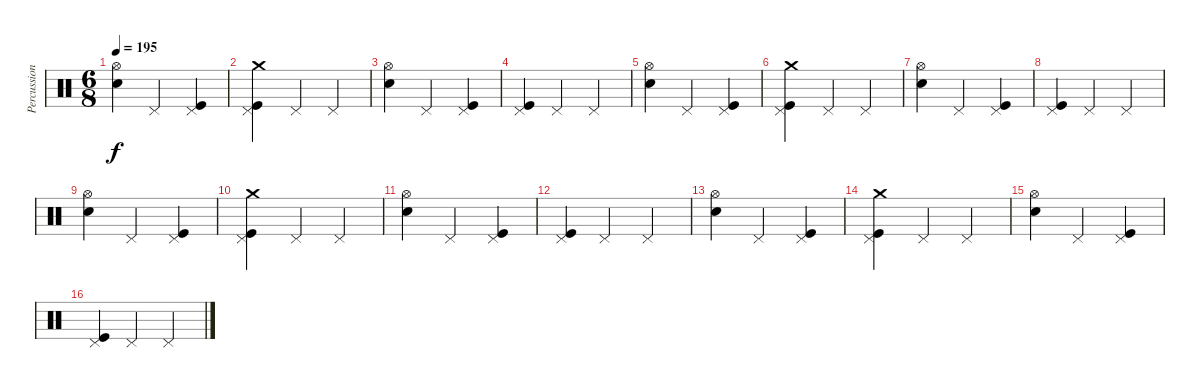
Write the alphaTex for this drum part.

\track ("Percussion" "Percussion") {instrument percussion}
\staff {score}
\articulation defaults
\ts (6 8)
\tempo 195
\clef neutral
\ks c
("Hi-Hat (open)" "Electric Snare (hit)").4{dy f} "Pedal Hi-Hat (hit)".4 ("Pedal Hi-Hat (hit)" "Kick (hit)").4 |
("Crash medium (hit)" "Pedal Hi-Hat (hit)" "Kick (hit)").4 "Pedal Hi-Hat (hit)".4 "Pedal Hi-Hat (hit)".4 |
("Hi-Hat (open)" "Electric Snare (hit)").4 "Pedal Hi-Hat (hit)".4 ("Pedal Hi-Hat (hit)" "Kick (hit)").4 |
("Pedal Hi-Hat (hit)" "Kick (hit)").4 "Pedal Hi-Hat (hit)".4 "Pedal Hi-Hat (hit)".4 |
("Hi-Hat (open)" "Electric Snare (hit)").4 "Pedal Hi-Hat (hit)".4 ("Pedal Hi-Hat (hit)" "Kick (hit)").4 |
("Crash medium (hit)" "Pedal Hi-Hat (hit)" "Kick (hit)").4 "Pedal Hi-Hat (hit)".4 "Pedal Hi-Hat (hit)".4 |
("Hi-Hat (open)" "Electric Snare (hit)").4 "Pedal Hi-Hat (hit)".4 ("Pedal Hi-Hat (hit)" "Kick (hit)").4 |
("Pedal Hi-Hat (hit)" "Kick (hit)").4 "Pedal Hi-Hat (hit)".4 "Pedal Hi-Hat (hit)".4 |
("Hi-Hat (open)" "Electric Snare (hit)").4 "Pedal Hi-Hat (hit)".4 ("Pedal Hi-Hat (hit)" "Kick (hit)").4 |
("Crash medium (hit)" "Pedal Hi-Hat (hit)" "Kick (hit)").4 "Pedal Hi-Hat (hit)".4 "Pedal Hi-Hat (hit)".4 |
("Hi-Hat (open)" "Electric Snare (hit)").4 "Pedal Hi-Hat (hit)".4 ("Pedal Hi-Hat (hit)" "Kick (hit)").4 |
("Pedal Hi-Hat (hit)" "Kick (hit)").4 "Pedal Hi-Hat (hit)".4 "Pedal Hi-Hat (hit)".4 |
("Hi-Hat (open)" "Electric Snare (hit)").4 "Pedal Hi-Hat (hit)".4 ("Pedal Hi-Hat (hit)" "Kick (hit)").4 |
("Crash medium (hit)" "Pedal Hi-Hat (hit)" "Kick (hit)").4 "Pedal Hi-Hat (hit)".4 "Pedal Hi-Hat (hit)".4 |
("Hi-Hat (open)" "Electric Snare (hit)").4 "Pedal Hi-Hat (hit)".4 ("Pedal Hi-Hat (hit)" "Kick (hit)").4 |
("Pedal Hi-Hat (hit)" "Kick (hit)").4 "Pedal Hi-Hat (hit)".4 "Pedal Hi-Hat (hit)".4
